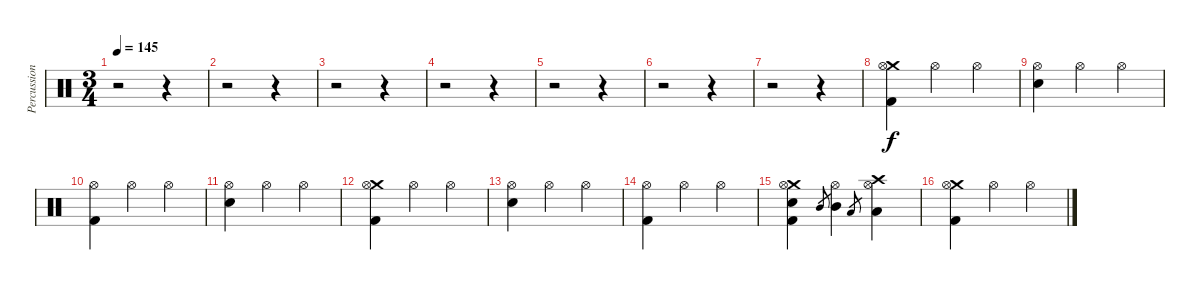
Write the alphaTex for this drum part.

\track ("Percussion" "Percussion") {instrument percussion}
\staff {score}
\articulation defaults
\ts (3 4)
\tempo 145
\clef neutral
\ks c
r.2{dy f} r.4 |
r.2 r.4 |
r.2 r.4 |
r.2 r.4 |
r.2 r.4 |
r.2 r.4 |
r.2 r.4 |
("Crash medium (hit)" "Hi-Hat (open)" "Kick (hit) 2").4 "Hi-Hat (open)".4 "Hi-Hat (open)".4 |
("Hi-Hat (open)" "Electric Snare (hit)").4 "Hi-Hat (open)".4 "Hi-Hat (open)".4 |
("Hi-Hat (open)" "Kick (hit) 2").4 "Hi-Hat (open)".4 "Hi-Hat (open)".4 |
("Hi-Hat (open)" "Electric Snare (hit)").4 "Hi-Hat (open)".4 "Hi-Hat (open)".4 |
("Crash medium (hit)" "Hi-Hat (open)" "Kick (hit) 2").4 "Hi-Hat (open)".4 "Hi-Hat (open)".4 |
("Hi-Hat (open)" "Electric Snare (hit)").4 "Hi-Hat (open)".4 "Hi-Hat (open)".4 |
("Hi-Hat (open)" "Kick (hit) 2").4 "Hi-Hat (open)".4 "Hi-Hat (open)".4 |
("Crash medium (hit)" "Hi-Hat (open)" "Electric Snare (hit)" "Kick (hit) 2").4 "Mid Tom (hit)".8{gr} ("Hi-Hat (open)" "Mid Tom (hit)").4 "Low Tom (hit)".8{gr} ("Crash high (hit)" "Hi-Hat (open)" "Low Tom (hit)").4 |
("Crash medium (hit)" "Hi-Hat (open)" "Kick (hit) 2").4 "Hi-Hat (open)".4 "Hi-Hat (open)".4
